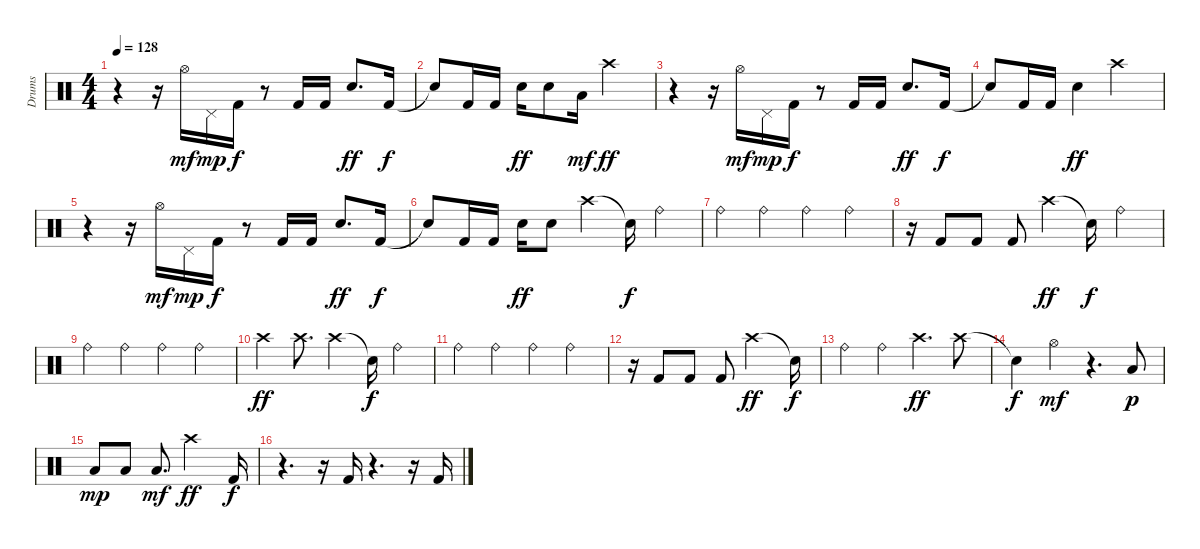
\track ("Drums                               " "Drums     ") {instrument percussion}
\staff {score}
\articulation defaults
\ts (4 4)
\tempo 128
\clef neutral
\ks c
r.4{dy ff} r.16 "Hi-Hat (open)".16{dy mf} "Pedal Hi-Hat (hit)".16{dy mp} "Kick (hit) 2".16{dy f} r.8 "Kick (hit) 2".16 "Kick (hit) 2".16 "Snare (hit) 2".8{d dy ff} "Kick (hit) 2".16{dy f} |
"Snare (hit)"{t}.8 "Kick (hit) 2".16 "Kick (hit) 2".16 "Snare (hit) 2".16{dy ff} "Snare (hit) 2".8 "Low Floor Tom (hit)".16{dy mf} "Crash high (hit)".2{dy ff} |
r.4 r.16 "Hi-Hat (open)".16{dy mf} "Pedal Hi-Hat (hit)".16{dy mp} "Kick (hit) 2".16{dy f} r.8 "Kick (hit) 2".16 "Kick (hit) 2".16 "Snare (hit) 2".8{d dy ff} "Kick (hit) 2".16{dy f} |
"Snare (hit)"{t}.8 "Kick (hit) 2".16 "Kick (hit) 2".16 "Snare (hit) 2".4{dy ff} "Crash high (hit)".2 |
r.4 r.16 "Hi-Hat (open)".16{dy mf} "Pedal Hi-Hat (hit)".16{dy mp} "Kick (hit) 2".16{dy f} r.8 "Kick (hit) 2".16 "Kick (hit) 2".16 "Snare (hit) 2".8{d dy ff} "Kick (hit) 2".16{dy f} |
"Snare (hit)"{t}.8 "Kick (hit) 2".16 "Kick (hit) 2".16 "Snare (hit) 2".16{dy ff} "Snare (hit) 2".8 "Crash high (hit)".4 "Snare (hit)"{t}.16{dy f} "Ride (bell)".4 |
"Ride (bell)".4 "Ride (bell)".4 "Ride (bell)".4 "Ride (bell)".4 |
r.16 "Kick (hit) 2".8 "Kick (hit) 2".8 "Kick (hit) 2".8 "Crash high (hit)".4{dy ff} "Snare (hit)"{t}.16{dy f} "Ride (bell)".4 |
"Ride (bell)".4 "Ride (bell)".4 "Ride (bell)".4 "Ride (bell)".4 |
"Crash high (hit)".4{dy ff} "Crash high (hit)".8{d} "Crash high (hit)".4 "Snare (hit)"{t}.16{dy f} "Ride (bell)".4 |
"Ride (bell)".4 "Ride (bell)".4 "Ride (bell)".4 "Ride (bell)".4 |
r.16 "Kick (hit) 2".8 "Kick (hit) 2".8 "Kick (hit) 2".8 "Crash high (hit)".2{dy ff} "Snare (hit)"{t}.16{dy f} |
"Ride (bell)".4 "Ride (bell)".4 "Crash high (hit)".4{d dy ff} "Crash high (hit)".8 |
"Snare (hit)"{t}.4{dy f} "Hi-Hat (open)".4{dy mf} r.4{d} "Low Tom (hit)".8{dy p} |
"Low Tom (hit)".8{dy mp} "Low Tom (hit)".8 "Low Tom (hit)".8{d dy mf} "Crash high (hit)".2{dy ff} "Kick (hit) 2".16{dy f} |
r.4{d} r.16 "Kick (hit) 2".16 r.4{d} r.16 "Kick (hit) 2".16
